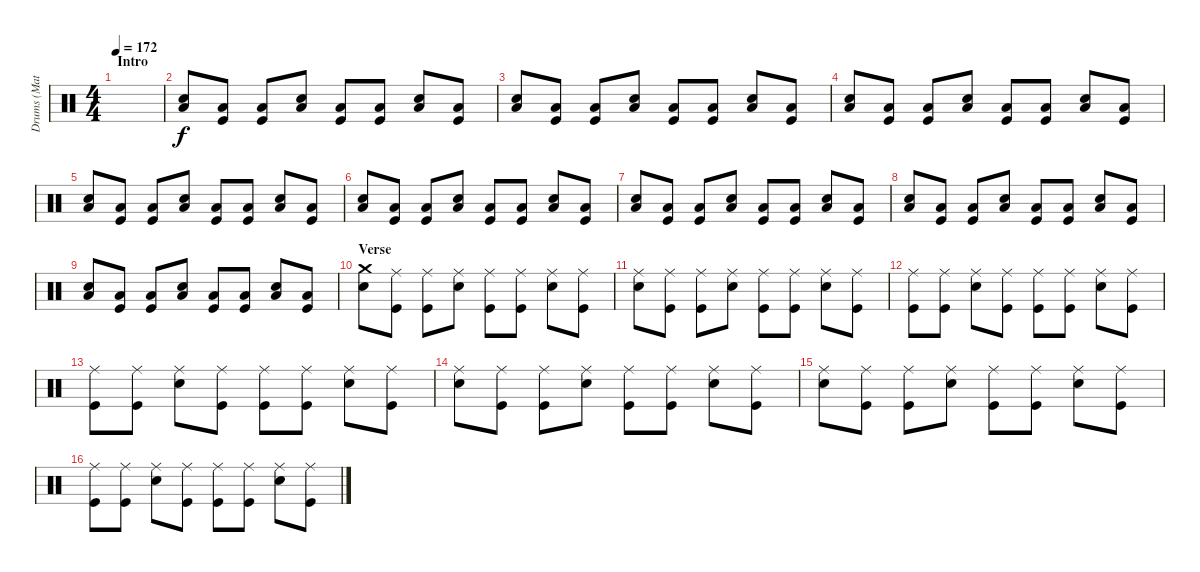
\track ("Drums (Matt)" "Drums (Mat") {instrument percussion}
\staff {score}
\articulation defaults
\ts (4 4)
\section ("" "Intro")
\tempo 172
\clef neutral
\ks c
|
("Electric Snare (hit)" "Low Tom (hit)").8 ("Low Tom (hit)" "Kick (hit)").8 ("Low Tom (hit)" "Kick (hit)").8 ("Electric Snare (hit)" "Low Tom (hit)").8 ("Low Tom (hit)" "Kick (hit)").8 ("Low Tom (hit)" "Kick (hit)").8 ("Electric Snare (hit)" "Low Tom (hit)").8 ("Low Tom (hit)" "Kick (hit)").8 |
("Electric Snare (hit)" "Low Tom (hit)").8 ("Low Tom (hit)" "Kick (hit)").8 ("Low Tom (hit)" "Kick (hit)").8 ("Electric Snare (hit)" "Low Tom (hit)").8 ("Low Tom (hit)" "Kick (hit)").8 ("Low Tom (hit)" "Kick (hit)").8 ("Electric Snare (hit)" "Low Tom (hit)").8 ("Low Tom (hit)" "Kick (hit)").8 |
("Electric Snare (hit)" "Low Tom (hit)").8 ("Low Tom (hit)" "Kick (hit)").8 ("Low Tom (hit)" "Kick (hit)").8 ("Electric Snare (hit)" "Low Tom (hit)").8 ("Low Tom (hit)" "Kick (hit)").8 ("Low Tom (hit)" "Kick (hit)").8 ("Electric Snare (hit)" "Low Tom (hit)").8 ("Low Tom (hit)" "Kick (hit)").8 |
("Electric Snare (hit)" "Low Tom (hit)").8 ("Low Tom (hit)" "Kick (hit)").8 ("Low Tom (hit)" "Kick (hit)").8 ("Electric Snare (hit)" "Low Tom (hit)").8 ("Low Tom (hit)" "Kick (hit)").8 ("Low Tom (hit)" "Kick (hit)").8 ("Electric Snare (hit)" "Low Tom (hit)").8 ("Low Tom (hit)" "Kick (hit)").8 |
("Electric Snare (hit)" "Low Tom (hit)").8 ("Low Tom (hit)" "Kick (hit)").8 ("Low Tom (hit)" "Kick (hit)").8 ("Electric Snare (hit)" "Low Tom (hit)").8 ("Low Tom (hit)" "Kick (hit)").8 ("Low Tom (hit)" "Kick (hit)").8 ("Electric Snare (hit)" "Low Tom (hit)").8 ("Low Tom (hit)" "Kick (hit)").8 |
("Electric Snare (hit)" "Low Tom (hit)").8 ("Low Tom (hit)" "Kick (hit)").8 ("Low Tom (hit)" "Kick (hit)").8 ("Electric Snare (hit)" "Low Tom (hit)").8 ("Low Tom (hit)" "Kick (hit)").8 ("Low Tom (hit)" "Kick (hit)").8 ("Electric Snare (hit)" "Low Tom (hit)").8 ("Low Tom (hit)" "Kick (hit)").8 |
("Electric Snare (hit)" "Low Tom (hit)").8 ("Low Tom (hit)" "Kick (hit)").8 ("Low Tom (hit)" "Kick (hit)").8 ("Electric Snare (hit)" "Low Tom (hit)").8 ("Low Tom (hit)" "Kick (hit)").8 ("Low Tom (hit)" "Kick (hit)").8 ("Electric Snare (hit)" "Low Tom (hit)").8 ("Low Tom (hit)" "Kick (hit)").8 |
("Electric Snare (hit)" "Low Tom (hit)").8 ("Low Tom (hit)" "Kick (hit)").8 ("Low Tom (hit)" "Kick (hit)").8 ("Electric Snare (hit)" "Low Tom (hit)").8 ("Low Tom (hit)" "Kick (hit)").8 ("Low Tom (hit)" "Kick (hit)").8 ("Electric Snare (hit)" "Low Tom (hit)").8 ("Low Tom (hit)" "Kick (hit)").8 |
\section ("" "Verse")
("Crash medium (hit)" "Electric Snare (hit)").8{dy f} ("Ride (middle)" "Kick (hit)").8 ("Ride (middle)" "Kick (hit)").8 ("Ride (middle)" "Electric Snare (hit)").8 ("Ride (middle)" "Kick (hit)").8 ("Ride (middle)" "Kick (hit)").8 ("Ride (middle)" "Electric Snare (hit)").8 ("Ride (middle)" "Kick (hit)").8 |
("Ride (middle)" "Electric Snare (hit)").8 ("Ride (middle)" "Kick (hit)").8 ("Ride (middle)" "Kick (hit)").8 ("Ride (middle)" "Electric Snare (hit)").8 ("Ride (middle)" "Kick (hit)").8 ("Ride (middle)" "Kick (hit)").8 ("Ride (middle)" "Electric Snare (hit)").8 ("Ride (middle)" "Kick (hit)").8 |
("Ride (middle)" "Kick (hit)").8 ("Ride (middle)" "Kick (hit)").8 ("Ride (middle)" "Electric Snare (hit)").8 ("Ride (middle)" "Kick (hit)").8 ("Ride (middle)" "Kick (hit)").8 ("Ride (middle)" "Kick (hit)").8 ("Ride (middle)" "Electric Snare (hit)").8 ("Ride (middle)" "Kick (hit)").8 |
("Ride (middle)" "Kick (hit)").8 ("Ride (middle)" "Kick (hit)").8 ("Ride (middle)" "Electric Snare (hit)").8 ("Ride (middle)" "Kick (hit)").8 ("Ride (middle)" "Kick (hit)").8 ("Ride (middle)" "Kick (hit)").8 ("Ride (middle)" "Electric Snare (hit)").8 ("Ride (middle)" "Kick (hit)").8 |
("Ride (middle)" "Electric Snare (hit)").8 ("Ride (middle)" "Kick (hit)").8 ("Ride (middle)" "Kick (hit)").8 ("Ride (middle)" "Electric Snare (hit)").8 ("Ride (middle)" "Kick (hit)").8 ("Ride (middle)" "Kick (hit)").8 ("Ride (middle)" "Electric Snare (hit)").8 ("Ride (middle)" "Kick (hit)").8 |
("Ride (middle)" "Electric Snare (hit)").8 ("Ride (middle)" "Kick (hit)").8 ("Ride (middle)" "Kick (hit)").8 ("Ride (middle)" "Electric Snare (hit)").8 ("Ride (middle)" "Kick (hit)").8 ("Ride (middle)" "Kick (hit)").8 ("Ride (middle)" "Electric Snare (hit)").8 ("Ride (middle)" "Kick (hit)").8 |
("Ride (middle)" "Kick (hit)").8 ("Ride (middle)" "Kick (hit)").8 ("Ride (middle)" "Electric Snare (hit)").8 ("Ride (middle)" "Kick (hit)").8 ("Ride (middle)" "Kick (hit)").8 ("Ride (middle)" "Kick (hit)").8 ("Ride (middle)" "Electric Snare (hit)").8 ("Ride (middle)" "Kick (hit)").8
